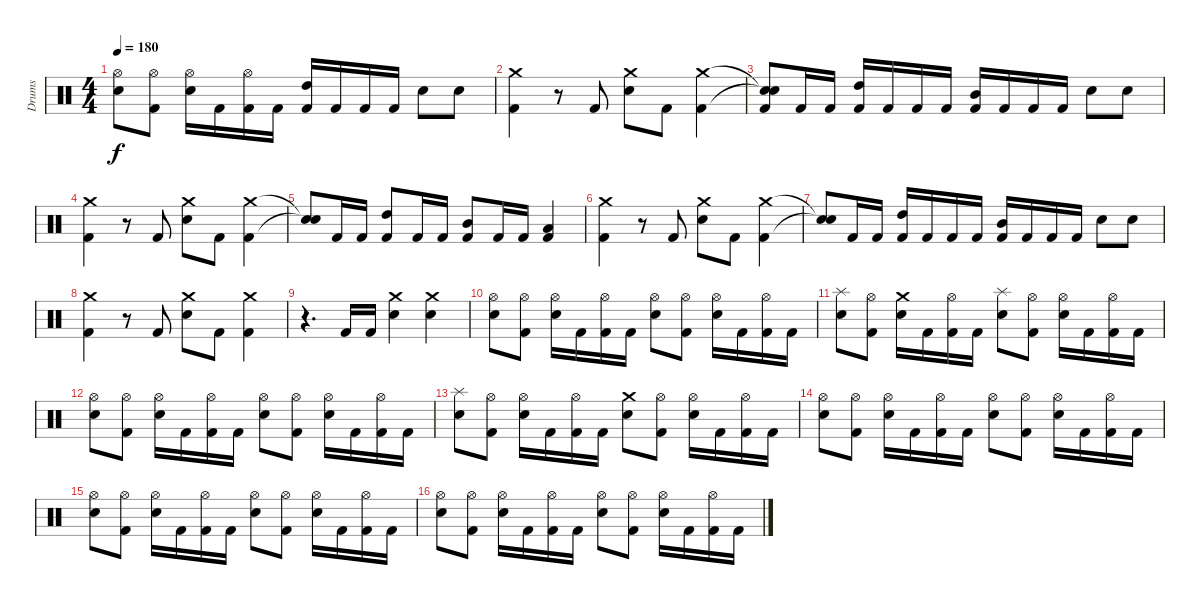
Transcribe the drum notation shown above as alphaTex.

\track ("Drums" "Drums") {instrument percussion}
\staff {score}
\articulation defaults
\ts (4 4)
\tempo 180
\clef neutral
\ks c
("Hi-Hat (open)" "Electric Snare (hit)").8{dy f} ("Hi-Hat (open)" "Kick (hit) 2").8 ("Hi-Hat (open)" "Electric Snare (hit)").16 "Kick (hit) 2".16 ("Hi-Hat (open)" "Kick (hit) 2").16 "Kick (hit) 2".16 ("High Tom (hit)" "Kick (hit) 2").16 "Kick (hit) 2".16 "Kick (hit) 2".16 "Kick (hit) 2".16 "Electric Snare (hit)".8 "Electric Snare (hit)".8 |
("Kick (hit) 2" "Crash medium (hit)").4 r.8 "Kick (hit) 2".8 ("Crash medium (hit)" "Electric Snare (hit)").8 "Kick (hit) 2".8 ("Crash medium (hit)" "Kick (hit) 2").4 |
("Snare (hit)"{t} "Snare (hit)"{t} "Kick (hit) 2").8 "Kick (hit) 2".16 "Kick (hit) 2".16 ("High Tom (hit)" "Kick (hit) 2").16 "Kick (hit) 2".16 "Kick (hit) 2".16 "Kick (hit) 2".16 ("Mid Tom (hit)" "Kick (hit) 2").16 "Kick (hit) 2".16 "Kick (hit) 2".16 "Kick (hit) 2".16 "Electric Snare (hit)".8 "Electric Snare (hit)".8 |
("Kick (hit) 2" "Crash medium (hit)").4 r.8 "Kick (hit) 2".8 ("Crash medium (hit)" "Electric Snare (hit)").8 "Kick (hit) 2".8 ("Crash medium (hit)" "Kick (hit) 2").4 |
("Snare (hit)"{t} "Snare (hit)"{t}).8 "Kick (hit) 2".16 "Kick (hit) 2".16 ("Kick (hit) 2" "High Tom (hit)").8 "Kick (hit) 2".16 "Kick (hit) 2".16 ("Kick (hit) 2" "Mid Tom (hit)").8 "Kick (hit) 2".16 "Kick (hit) 2".16 ("Kick (hit) 2" "Low Tom (hit)").4 |
("Kick (hit) 2" "Crash medium (hit)").4 r.8 "Kick (hit) 2".8 ("Crash medium (hit)" "Electric Snare (hit)").8 "Kick (hit) 2".8 ("Crash medium (hit)" "Kick (hit) 2").4 |
("Snare (hit)"{t} "Snare (hit)"{t}).8 "Kick (hit) 2".16 "Kick (hit) 2".16 ("High Tom (hit)" "Kick (hit) 2").16 "Kick (hit) 2".16 "Kick (hit) 2".16 "Kick (hit) 2".16 ("Mid Tom (hit)" "Kick (hit) 2").16 "Kick (hit) 2".16 "Kick (hit) 2".16 "Kick (hit) 2".16 "Electric Snare (hit)".8 "Electric Snare (hit)".8 |
("Kick (hit) 2" "Crash medium (hit)").4 r.8 "Kick (hit) 2".8 ("Crash medium (hit)" "Electric Snare (hit)").8 "Kick (hit) 2".8 ("Crash medium (hit)" "Kick (hit) 2").4 |
r.4{d} "Kick (hit) 2".16 "Kick (hit) 2".16 ("Crash medium (hit)" "Electric Snare (hit)").4 ("Crash medium (hit)" "Electric Snare (hit)").4 |
("Hi-Hat (open)" "Electric Snare (hit)").8 ("Hi-Hat (open)" "Kick (hit) 2").8 ("Hi-Hat (open)" "Electric Snare (hit)").16 "Kick (hit) 2".16 ("Hi-Hat (open)" "Kick (hit) 2").16 "Kick (hit) 2".16 ("Hi-Hat (open)" "Electric Snare (hit)").8 ("Hi-Hat (open)" "Kick (hit) 2").8 ("Hi-Hat (open)" "Electric Snare (hit)").16 "Kick (hit) 2".16 ("Hi-Hat (open)" "Kick (hit) 2").16 "Kick (hit) 2".16 |
("Splash (hit)" "Electric Snare (hit)").8 ("Hi-Hat (open)" "Kick (hit) 2").8 ("Crash medium (hit)" "Electric Snare (hit)").16 "Kick (hit) 2".16 ("Hi-Hat (open)" "Kick (hit) 2").16 "Kick (hit) 2".16 ("Splash (hit)" "Electric Snare (hit)").8 ("Hi-Hat (open)" "Kick (hit) 2").8 ("Hi-Hat (open)" "Electric Snare (hit)").16 "Kick (hit) 2".16 ("Hi-Hat (open)" "Kick (hit) 2").16 "Kick (hit) 2".16 |
("Hi-Hat (open)" "Electric Snare (hit)").8 ("Hi-Hat (open)" "Kick (hit) 2").8 ("Hi-Hat (open)" "Electric Snare (hit)").16 "Kick (hit) 2".16 ("Hi-Hat (open)" "Kick (hit) 2").16 "Kick (hit) 2".16 ("Hi-Hat (open)" "Electric Snare (hit)").8 ("Hi-Hat (open)" "Kick (hit) 2").8 ("Hi-Hat (open)" "Electric Snare (hit)").16 "Kick (hit) 2".16 ("Hi-Hat (open)" "Kick (hit) 2").16 "Kick (hit) 2".16 |
("Splash (hit)" "Electric Snare (hit)").8 ("Hi-Hat (open)" "Kick (hit) 2").8 ("Hi-Hat (open)" "Electric Snare (hit)").16 "Kick (hit) 2".16 ("Hi-Hat (open)" "Kick (hit) 2").16 "Kick (hit) 2".16 ("Crash medium (hit)" "Electric Snare (hit)").8 ("Hi-Hat (open)" "Kick (hit) 2").8 ("Hi-Hat (open)" "Electric Snare (hit)").16 "Kick (hit) 2".16 ("Hi-Hat (open)" "Kick (hit) 2").16 "Kick (hit) 2".16 |
("Hi-Hat (open)" "Electric Snare (hit)").8 ("Hi-Hat (open)" "Kick (hit) 2").8 ("Hi-Hat (open)" "Electric Snare (hit)").16 "Kick (hit) 2".16 ("Hi-Hat (open)" "Kick (hit) 2").16 "Kick (hit) 2".16 ("Hi-Hat (open)" "Electric Snare (hit)").8 ("Hi-Hat (open)" "Kick (hit) 2").8 ("Hi-Hat (open)" "Electric Snare (hit)").16 "Kick (hit) 2".16 ("Hi-Hat (open)" "Kick (hit) 2").16 "Kick (hit) 2".16 |
("Hi-Hat (open)" "Electric Snare (hit)").8 ("Hi-Hat (open)" "Kick (hit) 2").8 ("Hi-Hat (open)" "Electric Snare (hit)").16 "Kick (hit) 2".16 ("Hi-Hat (open)" "Kick (hit) 2").16 "Kick (hit) 2".16 ("Hi-Hat (open)" "Electric Snare (hit)").8 ("Hi-Hat (open)" "Kick (hit) 2").8 ("Hi-Hat (open)" "Electric Snare (hit)").16 "Kick (hit) 2".16 ("Hi-Hat (open)" "Kick (hit) 2").16 "Kick (hit) 2".16 |
("Hi-Hat (open)" "Electric Snare (hit)").8 ("Hi-Hat (open)" "Kick (hit) 2").8 ("Hi-Hat (open)" "Electric Snare (hit)").16 "Kick (hit) 2".16 ("Hi-Hat (open)" "Kick (hit) 2").16 "Kick (hit) 2".16 ("Hi-Hat (open)" "Electric Snare (hit)").8 ("Hi-Hat (open)" "Kick (hit) 2").8 ("Hi-Hat (open)" "Electric Snare (hit)").16 "Kick (hit) 2".16 ("Hi-Hat (open)" "Kick (hit) 2").16 "Kick (hit) 2".16
